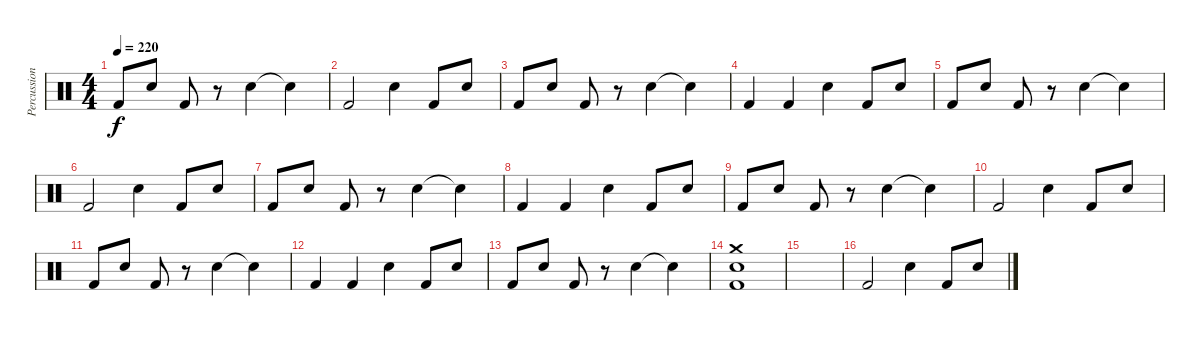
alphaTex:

\track ("Percussions" "Percussion") {instrument percussion}
\staff {score}
\articulation defaults
\ts (4 4)
\tempo 220
\clef neutral
\ks c "Kick (hit) 2".8{dy f} "Electric Snare (hit)".8 "Kick (hit) 2".8
r.8 "Electric Snare (hit)".4 "Electric Snare (hit)"{t}.4 |
"Kick (hit) 2".2 "Electric Snare (hit)".4 "Kick (hit) 2".8 "Electric Snare (hit)".8 |
"Kick (hit) 2".8 "Electric Snare (hit)".8 "Kick (hit) 2".8 r.8 "Electric Snare (hit)".4 "Snare (hit)"{t}.4 |
"Kick (hit) 2".4 "Kick (hit) 2".4 "Electric Snare (hit)".4 "Kick (hit) 2".8 "Electric Snare (hit)".8 |
"Kick (hit) 2".8 "Electric Snare (hit)".8 "Kick (hit) 2".8 r.8 "Electric Snare (hit)".4 "Electric Snare (hit)"{t}.4 |
"Kick (hit) 2".2 "Electric Snare (hit)".4 "Kick (hit) 2".8 "Electric Snare (hit)".8 |
"Kick (hit) 2".8 "Electric Snare (hit)".8 "Kick (hit) 2".8 r.8 "Electric Snare (hit)".4 "Snare (hit)"{t}.4 |
"Kick (hit) 2".4 "Kick (hit) 2".4 "Electric Snare (hit)".4 "Kick (hit) 2".8 "Electric Snare (hit)".8 |
"Kick (hit) 2".8 "Electric Snare (hit)".8 "Kick (hit) 2".8 r.8 "Electric Snare (hit)".4 "Electric Snare (hit)"{t}.4 |
"Kick (hit) 2".2 "Electric Snare (hit)".4 "Kick (hit) 2".8 "Electric Snare (hit)".8 |
"Kick (hit) 2".8 "Electric Snare (hit)".8 "Kick (hit) 2".8 r.8 "Electric Snare (hit)".4 "Snare (hit)"{t}.4 |
"Kick (hit) 2".4 "Kick (hit) 2".4 "Electric Snare (hit)".4 "Kick (hit) 2".8 "Electric Snare (hit)".8 |
"Kick (hit) 2".8 "Electric Snare (hit)".8 "Kick (hit) 2".8 r.8 "Electric Snare (hit)".4 "Electric Snare (hit)"{t}.4 |
("Crash medium (hit)" "Electric Snare (hit)" "Kick (hit) 2").1 |
|
"Kick (hit) 2".2 "Electric Snare (hit)".4 "Kick (hit) 2".8 "Electric Snare (hit)".8
